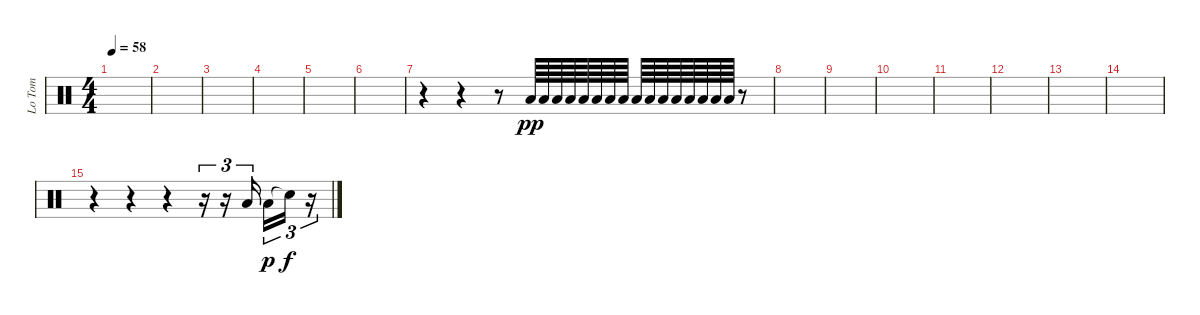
\track ("Lo Tom" "Lo Tom") {instrument percussion}
\staff {score}
\articulation defaults
\ts (4 4)
\tempo 58
\clef neutral
\ks c
|
|
|
|
|
|
r.4 r.4 r.8 "Low Tom (hit)".64{dy pp} "Low Tom (hit)".64 "Low Tom (hit)".64 "Low Tom (hit)".64 "Low Tom (hit)".64 "Low Tom (hit)".64 "Low Tom (hit)".64 "Low Tom (hit)".64 "Low Tom (hit)".64 "Low Tom (hit)".64 "Low Tom (hit)".64 "Low Tom (hit)".64 "Low Tom (hit)".64 "Low Tom (hit)".64 "Low Tom (hit)".64 "Low Tom (hit)".64 r.8 |
|
|
|
|
|
|
|
r.4 r.4 r.4 r.16{tu (3 2)} r.16{tu (3 2)} "Low Tom (hit)".16{tu (3 2)} "Low Tom (hit)".16{tu (3 2) dy p} "Snare (hit)"{t}.16{tu (3 2) dy f} r.16{tu (3 2)}
